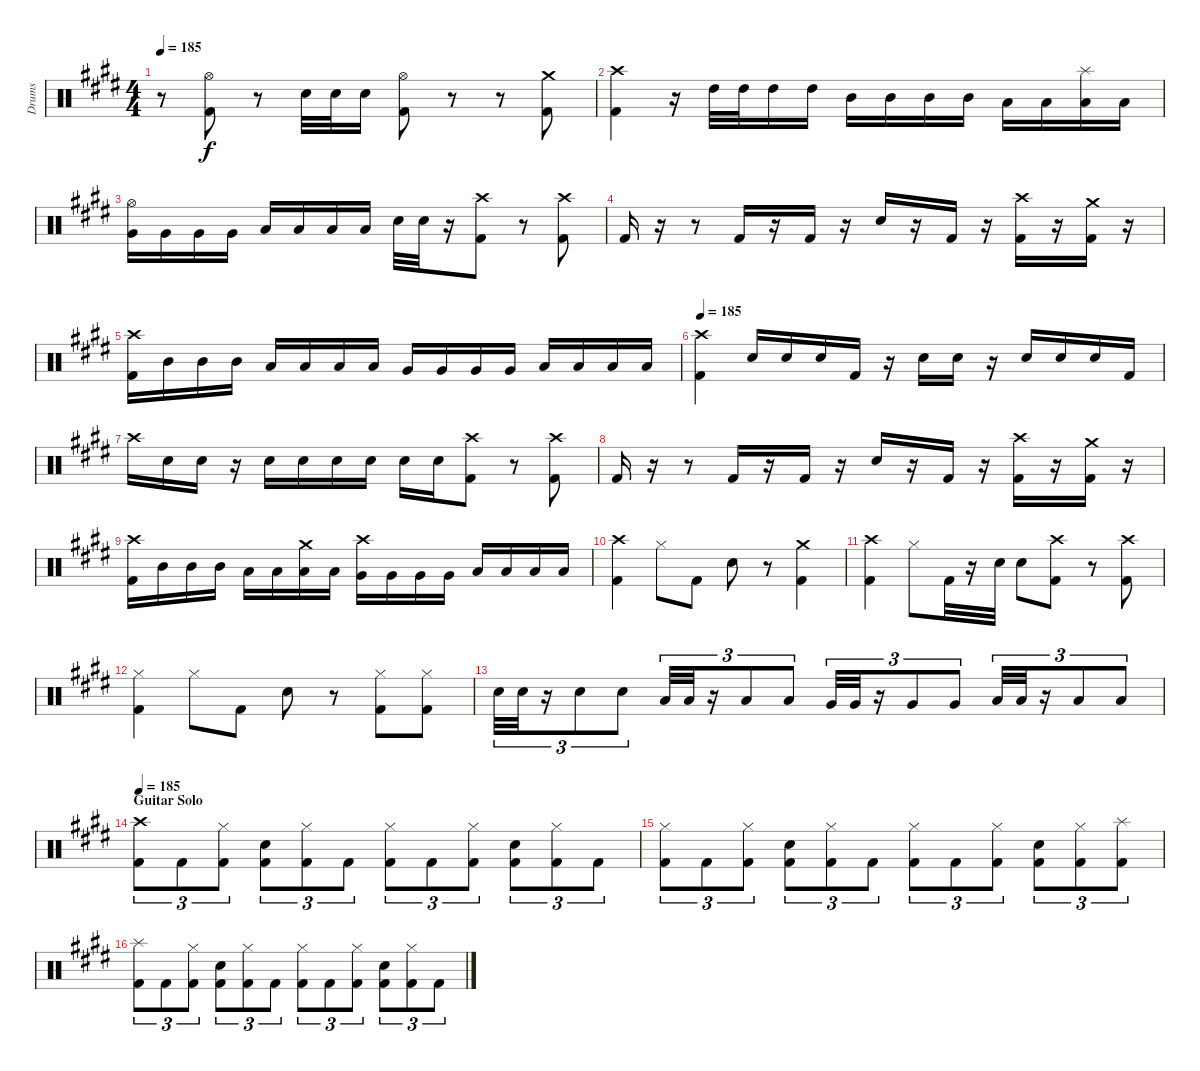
\track ("Drums" "Drums") {instrument percussion}
\staff {score}
\articulation defaults
\ts (4 4)
\tempo 185
\clef neutral
\ks e
r.8{dy f} ("Hi-Hat (open)" "Kick (hit) 2").8 r.8 "Electric Snare (hit)".32 "Electric Snare (hit)".32 "Electric Snare (hit)".16 ("Hi-Hat (open)" "Kick (hit) 2").8 r.8 r.8 ("Crash medium (hit)" "Kick (hit) 2").8 |
("Crash high (hit)" "Kick (hit) 2").4 r.16 "High Tom (hit)".32 "High Tom (hit)".32 "High Tom (hit)".16 "High Tom (hit)".16 "Mid Tom (hit)".16 "Mid Tom (hit)".16 "Mid Tom (hit)".16 "Mid Tom (hit)".16 "Low Tom (hit)".16 "Low Tom (hit)".16 ("Splash (hit)" "Low Tom (hit)").16 "Low Tom (hit)".16 |
("Hi-Hat (open)" "Very Low Tom (hit)").16 "Very Low Tom (hit)".16 "Very Low Tom (hit)".16 "Very Low Tom (hit)".16 "Low Floor Tom (hit)".16 "Low Floor Tom (hit)".16 "Low Floor Tom (hit)".16 "Low Floor Tom (hit)".16 "Electric Snare (hit)".32 "Electric Snare (hit)".32 r.16 ("Crash high (hit)" "Kick (hit) 2").8 r.8 ("Crash high (hit)" "Kick (hit) 2").8 |
"Kick (hit) 2".16 r.16 r.8 "Kick (hit) 2".16 r.16 "Kick (hit) 2".16 r.16 "Electric Snare (hit)".16 r.16 "Kick (hit) 2".16 r.16 ("Crash high (hit)" "Kick (hit) 2").16 r.16 ("Crash medium (hit)" "Kick (hit) 2").16 r.16 |
("Crash high (hit)" "Kick (hit) 2").16 "Mid Tom (hit)".16 "Mid Tom (hit)".16 "Mid Tom (hit)".16 "Low Tom (hit)".16 "Low Tom (hit)".16 "Low Tom (hit)".16 "Low Tom (hit)".16 "Very Low Tom (hit)".16 "Very Low Tom (hit)".16 "Very Low Tom (hit)".16 "Very Low Tom (hit)".16 "Low Floor Tom (hit)".16 "Low Floor Tom (hit)".16 "Low Floor Tom (hit)".16 "Low Floor Tom (hit)".16 |
\tempo 185
("Crash high (hit)" "Kick (hit) 2").4 "Electric Snare (hit)".16 "Electric Snare (hit)".16 "Electric Snare (hit)".16 "Kick (hit) 2".16 r.16 "Electric Snare (hit)".16 "Electric Snare (hit)".16 r.16 "Electric Snare (hit)".16 "Electric Snare (hit)".16 "Electric Snare (hit)".16 "Kick (hit) 2".16 |
"Crash high (hit)".16 "Electric Snare (hit)".16 "Electric Snare (hit)".16 r.16 "Electric Snare (hit)".16 "Electric Snare (hit)".16 "Electric Snare (hit)".16 "Electric Snare (hit)".16 "Electric Snare (hit)".16 "Electric Snare (hit)".16 ("Crash high (hit)" "Kick (hit) 2").8 r.8 ("Crash high (hit)" "Kick (hit) 2").8 |
"Kick (hit) 2".16 r.16 r.8 "Kick (hit) 2".16 r.16 "Kick (hit) 2".16 r.16 "Electric Snare (hit)".16 r.16 "Kick (hit) 2".16 r.16 ("Crash high (hit)" "Kick (hit) 2").16 r.16 ("Crash medium (hit)" "Kick (hit) 2").16 r.16 |
("Crash high (hit)" "Kick (hit) 2").16 "Mid Tom (hit)".16 "Mid Tom (hit)".16 "Mid Tom (hit)".16 "Low Tom (hit)".16 "Low Tom (hit)".16 ("Crash medium (hit)" "Low Tom (hit)").16 "Low Tom (hit)".16 ("Crash high (hit)" "Very Low Tom (hit)").16 "Very Low Tom (hit)".16 "Very Low Tom (hit)".16 "Very Low Tom (hit)".16 "Low Floor Tom (hit)".16 "Low Floor Tom (hit)".16 "Low Floor Tom (hit)".16 "Low Floor Tom (hit)".16 |
("Crash high (hit)" "Kick (hit) 2").4 "Hi-Hat (closed)".8 "Kick (hit) 2".8 "Electric Snare (hit)".8 r.8 ("Crash medium (hit)" "Kick (hit) 2").4 |
("Crash high (hit)" "Kick (hit) 2").4 "Hi-Hat (closed)".8 "Kick (hit) 2".32 r.16 "Electric Snare (hit)".32 "Electric Snare (hit)".8 ("Crash high (hit)" "Kick (hit) 2").8 r.8 ("Crash high (hit)" "Kick (hit) 2").8 |
("Hi-Hat (closed)" "Kick (hit) 2").4 "Hi-Hat (closed)".8 "Kick (hit) 2".8 "Electric Snare (hit)".8 r.8 ("Hi-Hat (closed)" "Kick (hit) 2").8 ("Hi-Hat (closed)" "Kick (hit) 2").8 |
"Electric Snare (hit)".32{tu (3 2)} "Electric Snare (hit)".32{tu (3 2)} r.16{tu (3 2)} "Electric Snare (hit)".8{tu (3 2)} "Electric Snare (hit)".8{tu (3 2)} "Low Tom (hit)".32{tu (3 2)} "Low Tom (hit)".32{tu (3 2)} r.16{tu (3 2)} "Low Tom (hit)".8{tu (3 2)} "Low Tom (hit)".8{tu (3 2)} "Very Low Tom (hit)".32{tu (3 2)} "Very Low Tom (hit)".32{tu (3 2)} r.16{tu (3 2)} "Very Low Tom (hit)".8{tu (3 2)} "Very Low Tom (hit)".8{tu (3 2)} "Low Floor Tom (hit)".32{tu (3 2)} "Low Floor Tom (hit)".32{tu (3 2)} r.16{tu (3 2)} "Low Floor Tom (hit)".8{tu (3 2)} "Low Floor Tom (hit)".8{tu (3 2)} |
\section ("" "Guitar Solo")
\tempo 185
("Crash high (hit)" "Kick (hit) 2").8{tu (3 2)} "Kick (hit) 2".8{tu (3 2)} ("Hi-Hat (closed)" "Kick (hit) 2").8{tu (3 2)} ("Electric Snare (hit)" "Kick (hit) 2").8{tu (3 2)} ("Hi-Hat (closed)" "Kick (hit) 2").8{tu (3 2)} "Kick (hit) 2".8{tu (3 2)} ("Hi-Hat (closed)" "Kick (hit) 2").8{tu (3 2)} "Kick (hit) 2".8{tu (3 2)} ("Hi-Hat (closed)" "Kick (hit) 2").8{tu (3 2)} ("Electric Snare (hit)" "Kick (hit) 2").8{tu (3 2)} ("Hi-Hat (closed)" "Kick (hit) 2").8{tu (3 2)} "Kick (hit) 2".8{tu (3 2)} |
("Hi-Hat (closed)" "Kick (hit) 2").8{tu (3 2)} "Kick (hit) 2".8{tu (3 2)} ("Hi-Hat (closed)" "Kick (hit) 2").8{tu (3 2)} ("Electric Snare (hit)" "Kick (hit) 2").8{tu (3 2)} ("Hi-Hat (closed)" "Kick (hit) 2").8{tu (3 2)} "Kick (hit) 2".8{tu (3 2)} ("Hi-Hat (closed)" "Kick (hit) 2").8{tu (3 2)} "Kick (hit) 2".8{tu (3 2)} ("Hi-Hat (closed)" "Kick (hit) 2").8{tu (3 2)} ("Electric Snare (hit)" "Kick (hit) 2").8{tu (3 2)} ("Hi-Hat (closed)" "Kick (hit) 2").8{tu (3 2)} ("Splash (hit)" "Kick (hit) 2").8{tu (3 2)} |
("Splash (hit)" "Kick (hit) 2").8{tu (3 2)} "Kick (hit) 2".8{tu (3 2)} ("Hi-Hat (closed)" "Kick (hit) 2").8{tu (3 2)} ("Electric Snare (hit)" "Kick (hit) 2").8{tu (3 2)} ("Hi-Hat (closed)" "Kick (hit) 2").8{tu (3 2)} "Kick (hit) 2".8{tu (3 2)} ("Hi-Hat (closed)" "Kick (hit) 2").8{tu (3 2)} "Kick (hit) 2".8{tu (3 2)} ("Hi-Hat (closed)" "Kick (hit) 2").8{tu (3 2)} ("Electric Snare (hit)" "Kick (hit) 2").8{tu (3 2)} ("Hi-Hat (closed)" "Kick (hit) 2").8{tu (3 2)} "Kick (hit) 2".8{tu (3 2)}
